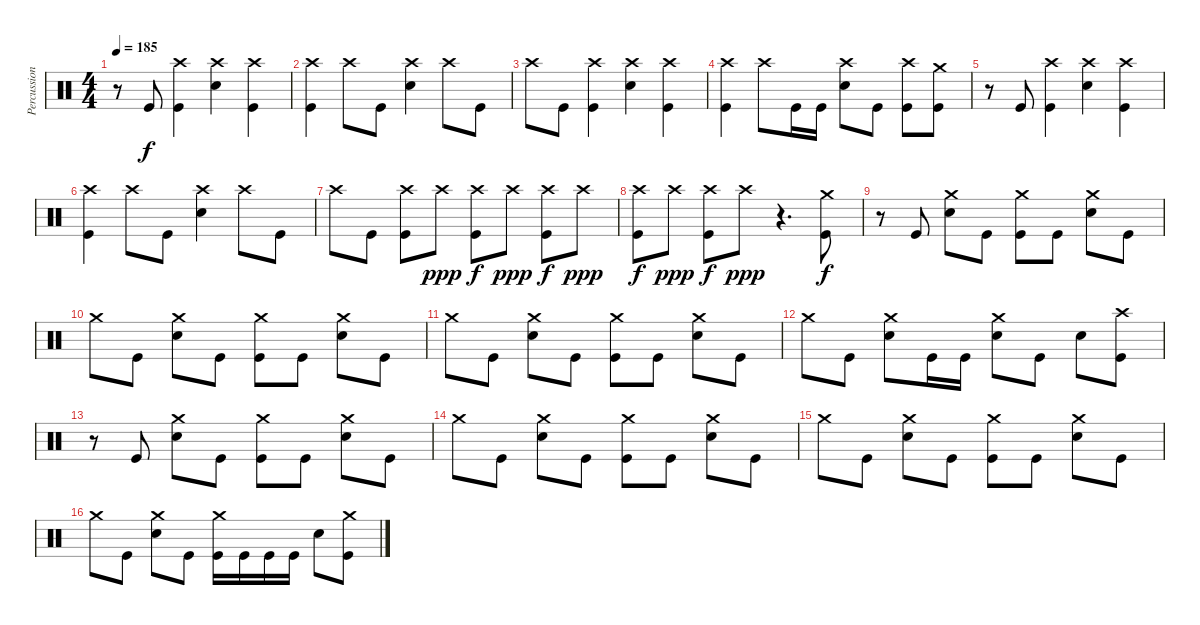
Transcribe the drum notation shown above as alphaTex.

\track ("Percussion" "Percussion") {instrument percussion}
\staff {score}
\articulation defaults
\ts (4 4)
\tempo 185
\clef neutral
\ks c
r.8{dy f} "Kick (hit)".8 ("Crash high (hit)" "Kick (hit)").4 ("Crash high (hit)" "Electric Snare (hit)").4 ("Crash high (hit)" "Kick (hit)").4 |
("Crash high (hit)" "Kick (hit)").4 "Crash high (hit)".8 "Kick (hit)".8 ("Crash high (hit)" "Electric Snare (hit)").4 "Crash high (hit)".8 "Kick (hit)".8 |
"Crash high (hit)".8 "Kick (hit)".8 ("Crash high (hit)" "Kick (hit)").4 ("Crash high (hit)" "Electric Snare (hit)").4 ("Crash high (hit)" "Kick (hit)").4 |
("Crash high (hit)" "Kick (hit)").4 "Crash high (hit)".8 "Kick (hit)".16 "Kick (hit)".16 ("Crash high (hit)" "Electric Snare (hit)").8 "Kick (hit)".8 ("Crash high (hit)" "Kick (hit)").8 ("Crash medium (hit)" "Kick (hit)").8 |
r.8 "Kick (hit)".8 ("Crash high (hit)" "Kick (hit)").4 ("Crash high (hit)" "Electric Snare (hit)").4 ("Crash high (hit)" "Kick (hit)").4 |
("Crash high (hit)" "Kick (hit)").4 "Crash high (hit)".8 "Kick (hit)".8 ("Crash high (hit)" "Electric Snare (hit)").4 "Crash high (hit)".8 "Kick (hit)".8 |
"Crash high (hit)".8 "Kick (hit)".8 ("Crash high (hit)" "Kick (hit)").8 "Crash high (hit)".8{dy ppp} ("Crash high (hit)" "Kick (hit)").8{dy f} "Crash high (hit)".8{dy ppp} ("Crash high (hit)" "Kick (hit)").8{dy f} "Crash high (hit)".8{dy ppp} |
("Crash high (hit)" "Kick (hit)").8{dy f} "Crash high (hit)".8{dy ppp} ("Crash high (hit)" "Kick (hit)").8{dy f} "Crash high (hit)".8{dy ppp} r.4{d} ("Crash medium (hit)" "Kick (hit)").8{dy f} |
r.8 "Kick (hit)".8 ("Crash medium (hit)" "Electric Snare (hit)").8 "Kick (hit)".8 ("Crash medium (hit)" "Kick (hit)").8 "Kick (hit)".8 ("Crash medium (hit)" "Electric Snare (hit)").8 "Kick (hit)".8 |
"Crash medium (hit)".8 "Kick (hit)".8 ("Crash medium (hit)" "Electric Snare (hit)").8 "Kick (hit)".8 ("Crash medium (hit)" "Kick (hit)").8 "Kick (hit)".8 ("Crash medium (hit)" "Electric Snare (hit)").8 "Kick (hit)".8 |
"Crash medium (hit)".8 "Kick (hit)".8 ("Crash medium (hit)" "Electric Snare (hit)").8 "Kick (hit)".8 ("Crash medium (hit)" "Kick (hit)").8 "Kick (hit)".8 ("Crash medium (hit)" "Electric Snare (hit)").8 "Kick (hit)".8 |
"Crash medium (hit)".8 "Kick (hit)".8 ("Crash medium (hit)" "Electric Snare (hit)").8 "Kick (hit)".16 "Kick (hit)".16 ("Crash medium (hit)" "Electric Snare (hit)").8 "Kick (hit)".8 "Electric Snare (hit)".8 ("Crash high (hit)" "Kick (hit)").8 |
r.8 "Kick (hit)".8 ("Crash medium (hit)" "Electric Snare (hit)").8 "Kick (hit)".8 ("Crash medium (hit)" "Kick (hit)").8 "Kick (hit)".8 ("Crash medium (hit)" "Electric Snare (hit)").8 "Kick (hit)".8 |
"Crash medium (hit)".8 "Kick (hit)".8 ("Crash medium (hit)" "Electric Snare (hit)").8 "Kick (hit)".8 ("Crash medium (hit)" "Kick (hit)").8 "Kick (hit)".8 ("Crash medium (hit)" "Electric Snare (hit)").8 "Kick (hit)".8 |
"Crash medium (hit)".8 "Kick (hit)".8 ("Crash medium (hit)" "Electric Snare (hit)").8 "Kick (hit)".8 ("Crash medium (hit)" "Kick (hit)").8 "Kick (hit)".8 ("Crash medium (hit)" "Electric Snare (hit)").8 "Kick (hit)".8 |
"Crash medium (hit)".8 "Kick (hit)".8 ("Crash medium (hit)" "Electric Snare (hit)").8 "Kick (hit)".8 ("Crash medium (hit)" "Kick (hit)").16 "Kick (hit)".16 "Kick (hit)".16 "Kick (hit)".16 "Electric Snare (hit)".8 ("Crash medium (hit)" "Kick (hit)").8
